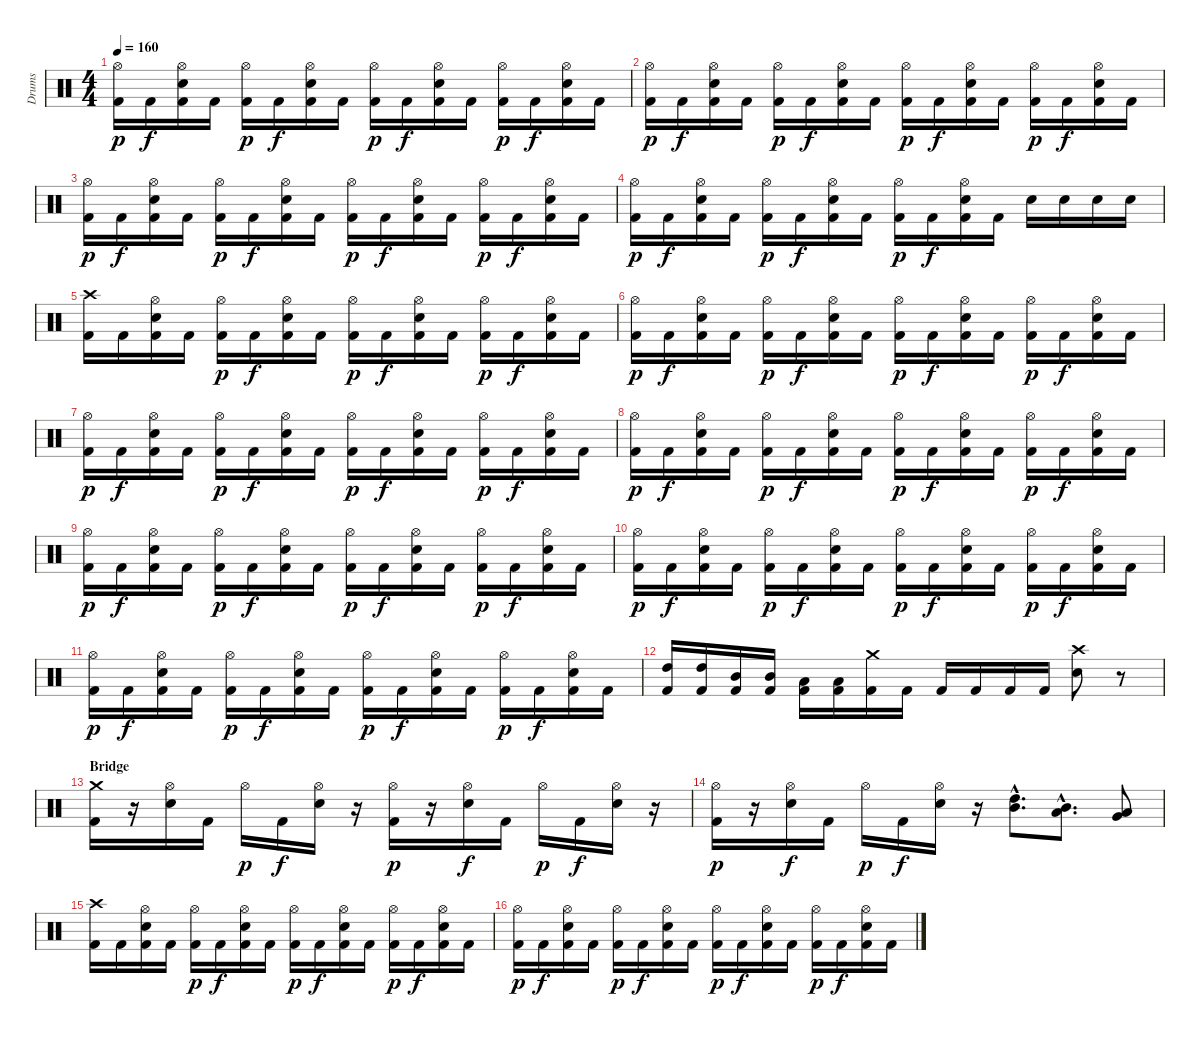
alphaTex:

\track ("Drums" "Drums") {instrument percussion}
\staff {score}
\articulation defaults
\ts (4 4)
\tempo 160
\clef neutral
\ks c
("Hi-Hat (open)" "Kick (hit) 2").16{dy p} "Kick (hit) 2".16{dy f} ("Hi-Hat (open)" "Electric Snare (hit)" "Kick (hit) 2").16 "Kick (hit) 2".16 ("Hi-Hat (open)" "Kick (hit) 2").16{dy p} "Kick (hit) 2".16{dy f} ("Hi-Hat (open)" "Electric Snare (hit)" "Kick (hit) 2").16 "Kick (hit) 2".16 ("Hi-Hat (open)" "Kick (hit) 2").16{dy p} "Kick (hit) 2".16{dy f} ("Hi-Hat (open)" "Electric Snare (hit)" "Kick (hit) 2").16 "Kick (hit) 2".16 ("Hi-Hat (open)" "Kick (hit) 2").16{dy p} "Kick (hit) 2".16{dy f} ("Hi-Hat (open)" "Electric Snare (hit)" "Kick (hit) 2").16 "Kick (hit) 2".16 |
("Hi-Hat (open)" "Kick (hit) 2").16{dy p} "Kick (hit) 2".16{dy f} ("Hi-Hat (open)" "Electric Snare (hit)" "Kick (hit) 2").16 "Kick (hit) 2".16 ("Hi-Hat (open)" "Kick (hit) 2").16{dy p} "Kick (hit) 2".16{dy f} ("Hi-Hat (open)" "Electric Snare (hit)" "Kick (hit) 2").16 "Kick (hit) 2".16 ("Hi-Hat (open)" "Kick (hit) 2").16{dy p} "Kick (hit) 2".16{dy f} ("Hi-Hat (open)" "Electric Snare (hit)" "Kick (hit) 2").16 "Kick (hit) 2".16 ("Hi-Hat (open)" "Kick (hit) 2").16{dy p} "Kick (hit) 2".16{dy f} ("Hi-Hat (open)" "Electric Snare (hit)" "Kick (hit) 2").16 "Kick (hit) 2".16 |
("Hi-Hat (open)" "Kick (hit) 2").16{dy p} "Kick (hit) 2".16{dy f} ("Hi-Hat (open)" "Electric Snare (hit)" "Kick (hit) 2").16 "Kick (hit) 2".16 ("Hi-Hat (open)" "Kick (hit) 2").16{dy p} "Kick (hit) 2".16{dy f} ("Hi-Hat (open)" "Electric Snare (hit)" "Kick (hit) 2").16 "Kick (hit) 2".16 ("Hi-Hat (open)" "Kick (hit) 2").16{dy p} "Kick (hit) 2".16{dy f} ("Hi-Hat (open)" "Electric Snare (hit)" "Kick (hit) 2").16 "Kick (hit) 2".16 ("Hi-Hat (open)" "Kick (hit) 2").16{dy p} "Kick (hit) 2".16{dy f} ("Hi-Hat (open)" "Electric Snare (hit)" "Kick (hit) 2").16 "Kick (hit) 2".16 |
("Hi-Hat (open)" "Kick (hit) 2").16{dy p} "Kick (hit) 2".16{dy f} ("Hi-Hat (open)" "Electric Snare (hit)" "Kick (hit) 2").16 "Kick (hit) 2".16 ("Hi-Hat (open)" "Kick (hit) 2").16{dy p} "Kick (hit) 2".16{dy f} ("Hi-Hat (open)" "Electric Snare (hit)" "Kick (hit) 2").16 "Kick (hit) 2".16 ("Hi-Hat (open)" "Kick (hit) 2").16{dy p} "Kick (hit) 2".16{dy f} ("Hi-Hat (open)" "Electric Snare (hit)" "Kick (hit) 2").16 "Kick (hit) 2".16 "Electric Snare (hit)".16 "Electric Snare (hit)".16 "Electric Snare (hit)".16 "Electric Snare (hit)".16 |
("Crash high (hit)" "Kick (hit) 2").16 "Kick (hit) 2".16 ("Hi-Hat (open)" "Electric Snare (hit)" "Kick (hit) 2").16 "Kick (hit) 2".16 ("Hi-Hat (open)" "Kick (hit) 2").16{dy p} "Kick (hit) 2".16{dy f} ("Hi-Hat (open)" "Electric Snare (hit)" "Kick (hit) 2").16 "Kick (hit) 2".16 ("Hi-Hat (open)" "Kick (hit) 2").16{dy p} "Kick (hit) 2".16{dy f} ("Hi-Hat (open)" "Electric Snare (hit)" "Kick (hit) 2").16 "Kick (hit) 2".16 ("Hi-Hat (open)" "Kick (hit) 2").16{dy p} "Kick (hit) 2".16{dy f} ("Hi-Hat (open)" "Electric Snare (hit)" "Kick (hit) 2").16 "Kick (hit) 2".16 |
("Hi-Hat (open)" "Kick (hit) 2").16{dy p} "Kick (hit) 2".16{dy f} ("Hi-Hat (open)" "Electric Snare (hit)" "Kick (hit) 2").16 "Kick (hit) 2".16 ("Hi-Hat (open)" "Kick (hit) 2").16{dy p} "Kick (hit) 2".16{dy f} ("Hi-Hat (open)" "Electric Snare (hit)" "Kick (hit) 2").16 "Kick (hit) 2".16 ("Hi-Hat (open)" "Kick (hit) 2").16{dy p} "Kick (hit) 2".16{dy f} ("Hi-Hat (open)" "Electric Snare (hit)" "Kick (hit) 2").16 "Kick (hit) 2".16 ("Hi-Hat (open)" "Kick (hit) 2").16{dy p} "Kick (hit) 2".16{dy f} ("Hi-Hat (open)" "Electric Snare (hit)" "Kick (hit) 2").16 "Kick (hit) 2".16 |
("Hi-Hat (open)" "Kick (hit) 2").16{dy p} "Kick (hit) 2".16{dy f} ("Hi-Hat (open)" "Electric Snare (hit)" "Kick (hit) 2").16 "Kick (hit) 2".16 ("Hi-Hat (open)" "Kick (hit) 2").16{dy p} "Kick (hit) 2".16{dy f} ("Hi-Hat (open)" "Electric Snare (hit)" "Kick (hit) 2").16 "Kick (hit) 2".16 ("Hi-Hat (open)" "Kick (hit) 2").16{dy p} "Kick (hit) 2".16{dy f} ("Hi-Hat (open)" "Electric Snare (hit)" "Kick (hit) 2").16 "Kick (hit) 2".16 ("Hi-Hat (open)" "Kick (hit) 2").16{dy p} "Kick (hit) 2".16{dy f} ("Hi-Hat (open)" "Electric Snare (hit)" "Kick (hit) 2").16 "Kick (hit) 2".16 |
("Hi-Hat (open)" "Kick (hit) 2").16{dy p} "Kick (hit) 2".16{dy f} ("Hi-Hat (open)" "Electric Snare (hit)" "Kick (hit) 2").16 "Kick (hit) 2".16 ("Hi-Hat (open)" "Kick (hit) 2").16{dy p} "Kick (hit) 2".16{dy f} ("Hi-Hat (open)" "Electric Snare (hit)" "Kick (hit) 2").16 "Kick (hit) 2".16 ("Hi-Hat (open)" "Kick (hit) 2").16{dy p} "Kick (hit) 2".16{dy f} ("Hi-Hat (open)" "Electric Snare (hit)" "Kick (hit) 2").16 "Kick (hit) 2".16 ("Hi-Hat (open)" "Kick (hit) 2").16{dy p} "Kick (hit) 2".16{dy f} ("Hi-Hat (open)" "Electric Snare (hit)" "Kick (hit) 2").16 "Kick (hit) 2".16 |
("Hi-Hat (open)" "Kick (hit) 2").16{dy p} "Kick (hit) 2".16{dy f} ("Hi-Hat (open)" "Electric Snare (hit)" "Kick (hit) 2").16 "Kick (hit) 2".16 ("Hi-Hat (open)" "Kick (hit) 2").16{dy p} "Kick (hit) 2".16{dy f} ("Hi-Hat (open)" "Electric Snare (hit)" "Kick (hit) 2").16 "Kick (hit) 2".16 ("Hi-Hat (open)" "Kick (hit) 2").16{dy p} "Kick (hit) 2".16{dy f} ("Hi-Hat (open)" "Electric Snare (hit)" "Kick (hit) 2").16 "Kick (hit) 2".16 ("Hi-Hat (open)" "Kick (hit) 2").16{dy p} "Kick (hit) 2".16{dy f} ("Hi-Hat (open)" "Electric Snare (hit)" "Kick (hit) 2").16 "Kick (hit) 2".16 |
("Hi-Hat (open)" "Kick (hit) 2").16{dy p} "Kick (hit) 2".16{dy f} ("Hi-Hat (open)" "Electric Snare (hit)" "Kick (hit) 2").16 "Kick (hit) 2".16 ("Hi-Hat (open)" "Kick (hit) 2").16{dy p} "Kick (hit) 2".16{dy f} ("Hi-Hat (open)" "Electric Snare (hit)" "Kick (hit) 2").16 "Kick (hit) 2".16 ("Hi-Hat (open)" "Kick (hit) 2").16{dy p} "Kick (hit) 2".16{dy f} ("Hi-Hat (open)" "Electric Snare (hit)" "Kick (hit) 2").16 "Kick (hit) 2".16 ("Hi-Hat (open)" "Kick (hit) 2").16{dy p} "Kick (hit) 2".16{dy f} ("Hi-Hat (open)" "Electric Snare (hit)" "Kick (hit) 2").16 "Kick (hit) 2".16 |
("Hi-Hat (open)" "Kick (hit) 2").16{dy p} "Kick (hit) 2".16{dy f} ("Hi-Hat (open)" "Electric Snare (hit)" "Kick (hit) 2").16 "Kick (hit) 2".16 ("Hi-Hat (open)" "Kick (hit) 2").16{dy p} "Kick (hit) 2".16{dy f} ("Hi-Hat (open)" "Electric Snare (hit)" "Kick (hit) 2").16 "Kick (hit) 2".16 ("Hi-Hat (open)" "Kick (hit) 2").16{dy p} "Kick (hit) 2".16{dy f} ("Hi-Hat (open)" "Electric Snare (hit)" "Kick (hit) 2").16 "Kick (hit) 2".16 ("Hi-Hat (open)" "Kick (hit) 2").16{dy p} "Kick (hit) 2".16{dy f} ("Hi-Hat (open)" "Electric Snare (hit)" "Kick (hit) 2").16 "Kick (hit) 2".16 |
("High Tom (hit)" "Kick (hit) 2").16 ("High Tom (hit)" "Kick (hit) 2").16 ("Mid Tom (hit)" "Kick (hit) 2").16 ("Mid Tom (hit)" "Kick (hit) 2").16 ("Low Tom (hit)" "Kick (hit) 2").16 ("Low Tom (hit)" "Kick (hit) 2").16 ("Crash medium (hit)" "Kick (hit) 2").16 "Kick (hit) 2".16 "Kick (hit) 2".16 "Kick (hit) 2".16 "Kick (hit) 2".16 "Kick (hit) 2".16 ("Crash high (hit)" "Electric Snare (hit)").8 r.8 |
\section ("" "Bridge")
("Crash medium (hit)" "Kick (hit) 2").16 r.16 ("Hi-Hat (open)" "Electric Snare (hit)").16 "Kick (hit) 2".16 "Hi-Hat (open)".16{dy p} "Kick (hit) 2".16{dy f} ("Hi-Hat (open)" "Electric Snare (hit)").16 r.16 ("Hi-Hat (open)" "Kick (hit) 2").16{dy p} r.16 ("Hi-Hat (open)" "Electric Snare (hit)").16{dy f} "Kick (hit) 2".16 "Hi-Hat (open)".16{dy p} "Kick (hit) 2".16{dy f} ("Hi-Hat (open)" "Electric Snare (hit)").16 r.16 |
("Hi-Hat (open)" "Kick (hit) 2").16{dy p} r.16 ("Hi-Hat (open)" "Electric Snare (hit)").16{dy f} "Kick (hit) 2".16 "Hi-Hat (open)".16{dy p} "Kick (hit) 2".16{dy f} ("Hi-Hat (open)" "Electric Snare (hit)").16 r.16 ("High Tom (hit)"{hac} "Mid Tom (hit)"{hac}).8{d} ("Mid Tom (hit)"{hac} "Low Tom (hit)"{hac}).8{d} ("Low Tom (hit)" "Very Low Tom (hit)").8 |
("Crash high (hit)" "Kick (hit) 2").16 "Kick (hit) 2".16 ("Hi-Hat (open)" "Electric Snare (hit)" "Kick (hit) 2").16 "Kick (hit) 2".16 ("Hi-Hat (open)" "Kick (hit) 2").16{dy p} "Kick (hit) 2".16{dy f} ("Hi-Hat (open)" "Electric Snare (hit)" "Kick (hit) 2").16 "Kick (hit) 2".16 ("Hi-Hat (open)" "Kick (hit) 2").16{dy p} "Kick (hit) 2".16{dy f} ("Hi-Hat (open)" "Electric Snare (hit)" "Kick (hit) 2").16 "Kick (hit) 2".16 ("Hi-Hat (open)" "Kick (hit) 2").16{dy p} "Kick (hit) 2".16{dy f} ("Hi-Hat (open)" "Electric Snare (hit)" "Kick (hit) 2").16 "Kick (hit) 2".16 |
("Hi-Hat (open)" "Kick (hit) 2").16{dy p} "Kick (hit) 2".16{dy f} ("Hi-Hat (open)" "Electric Snare (hit)" "Kick (hit) 2").16 "Kick (hit) 2".16 ("Hi-Hat (open)" "Kick (hit) 2").16{dy p} "Kick (hit) 2".16{dy f} ("Hi-Hat (open)" "Electric Snare (hit)" "Kick (hit) 2").16 "Kick (hit) 2".16 ("Hi-Hat (open)" "Kick (hit) 2").16{dy p} "Kick (hit) 2".16{dy f} ("Hi-Hat (open)" "Electric Snare (hit)" "Kick (hit) 2").16 "Kick (hit) 2".16 ("Hi-Hat (open)" "Kick (hit) 2").16{dy p} "Kick (hit) 2".16{dy f} ("Hi-Hat (open)" "Electric Snare (hit)" "Kick (hit) 2").16 "Kick (hit) 2".16
